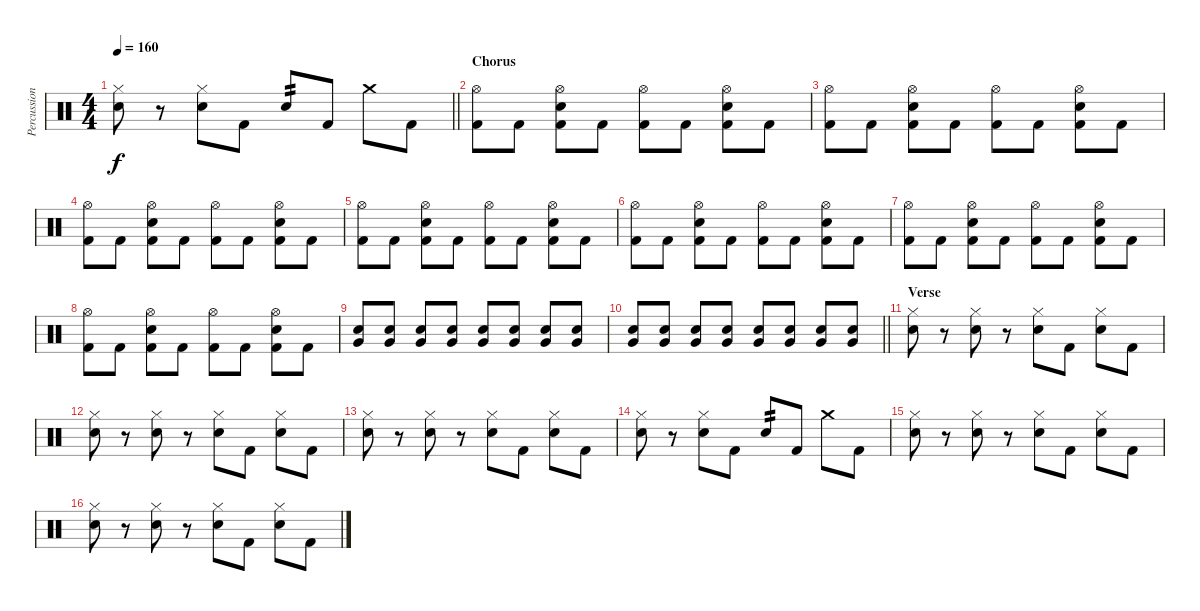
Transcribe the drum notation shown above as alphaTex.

\track ("Percussion" "Percussion") {instrument percussion}
\staff {score}
\articulation defaults
\ts (4 4)
\tempo 160
\clef neutral
\barLineRight lightlight
\ks c
("Hi-Hat (closed)" "Snare (hit) 2").8{dy f} r.8 ("Hi-Hat (closed)" "Snare (hit) 2").8 "Kick (hit) 2".8 "Snare (hit) 2".8{tp 2} "Kick (hit) 2".8 "Crash medium (hit)".8 "Kick (hit) 2".8 |
\section ("" "Chorus")
("Hi-Hat (open)" "Kick (hit) 2").8 "Kick (hit) 2".8 ("Hi-Hat (open)" "Snare (hit) 2" "Kick (hit) 2").8 "Kick (hit) 2".8 ("Hi-Hat (open)" "Kick (hit) 2").8 "Kick (hit) 2".8 ("Hi-Hat (open)" "Snare (hit) 2" "Kick (hit) 2").8 "Kick (hit) 2".8 |
("Hi-Hat (open)" "Kick (hit) 2").8 "Kick (hit) 2".8 ("Hi-Hat (open)" "Snare (hit) 2" "Kick (hit) 2").8 "Kick (hit) 2".8 ("Hi-Hat (open)" "Kick (hit) 2").8 "Kick (hit) 2".8 ("Hi-Hat (open)" "Snare (hit) 2" "Kick (hit) 2").8 "Kick (hit) 2".8 |
("Hi-Hat (open)" "Kick (hit) 2").8 "Kick (hit) 2".8 ("Hi-Hat (open)" "Snare (hit) 2" "Kick (hit) 2").8 "Kick (hit) 2".8 ("Hi-Hat (open)" "Kick (hit) 2").8 "Kick (hit) 2".8 ("Hi-Hat (open)" "Snare (hit) 2" "Kick (hit) 2").8 "Kick (hit) 2".8 |
("Hi-Hat (open)" "Kick (hit) 2").8 "Kick (hit) 2".8 ("Hi-Hat (open)" "Snare (hit) 2" "Kick (hit) 2").8 "Kick (hit) 2".8 ("Hi-Hat (open)" "Kick (hit) 2").8 "Kick (hit) 2".8 ("Hi-Hat (open)" "Snare (hit) 2" "Kick (hit) 2").8 "Kick (hit) 2".8 |
("Hi-Hat (open)" "Kick (hit) 2").8 "Kick (hit) 2".8 ("Hi-Hat (open)" "Snare (hit) 2" "Kick (hit) 2").8 "Kick (hit) 2".8 ("Hi-Hat (open)" "Kick (hit) 2").8 "Kick (hit) 2".8 ("Hi-Hat (open)" "Snare (hit) 2" "Kick (hit) 2").8 "Kick (hit) 2".8 |
("Hi-Hat (open)" "Kick (hit) 2").8 "Kick (hit) 2".8 ("Hi-Hat (open)" "Snare (hit) 2" "Kick (hit) 2").8 "Kick (hit) 2".8 ("Hi-Hat (open)" "Kick (hit) 2").8 "Kick (hit) 2".8 ("Hi-Hat (open)" "Snare (hit) 2" "Kick (hit) 2").8 "Kick (hit) 2".8 |
("Hi-Hat (open)" "Kick (hit) 2").8 "Kick (hit) 2".8 ("Hi-Hat (open)" "Snare (hit) 2" "Kick (hit) 2").8 "Kick (hit) 2".8 ("Hi-Hat (open)" "Kick (hit) 2").8 "Kick (hit) 2".8 ("Hi-Hat (open)" "Snare (hit) 2" "Kick (hit) 2").8 "Kick (hit) 2".8 |
("Very Low Tom (hit)" "Snare (hit) 2").8 ("Very Low Tom (hit)" "Snare (hit) 2").8 ("Very Low Tom (hit)" "Snare (hit) 2").8 ("Very Low Tom (hit)" "Snare (hit) 2").8 ("Very Low Tom (hit)" "Snare (hit) 2").8 ("Very Low Tom (hit)" "Snare (hit) 2").8 ("Very Low Tom (hit)" "Snare (hit) 2").8 ("Very Low Tom (hit)" "Snare (hit) 2").8 |
\barLineRight lightlight
("Very Low Tom (hit)" "Snare (hit) 2").8 ("Very Low Tom (hit)" "Snare (hit) 2").8 ("Very Low Tom (hit)" "Snare (hit) 2").8 ("Very Low Tom (hit)" "Snare (hit) 2").8 ("Very Low Tom (hit)" "Snare (hit) 2").8 ("Very Low Tom (hit)" "Snare (hit) 2").8 ("Very Low Tom (hit)" "Snare (hit) 2").8 ("Very Low Tom (hit)" "Snare (hit) 2").8 |
\section ("" "Verse")
("Hi-Hat (closed)" "Snare (hit) 2").8 r.8 ("Hi-Hat (closed)" "Snare (hit) 2").8 r.8 ("Hi-Hat (closed)" "Snare (hit) 2").8 "Kick (hit) 2".8 ("Hi-Hat (closed)" "Snare (hit) 2").8 "Kick (hit) 2".8 |
("Hi-Hat (closed)" "Snare (hit) 2").8 r.8 ("Hi-Hat (closed)" "Snare (hit) 2").8 r.8 ("Hi-Hat (closed)" "Snare (hit) 2").8 "Kick (hit) 2".8 ("Hi-Hat (closed)" "Snare (hit) 2").8 "Kick (hit) 2".8 |
("Hi-Hat (closed)" "Snare (hit) 2").8 r.8 ("Hi-Hat (closed)" "Snare (hit) 2").8 r.8 ("Hi-Hat (closed)" "Snare (hit) 2").8 "Kick (hit) 2".8 ("Hi-Hat (closed)" "Snare (hit) 2").8 "Kick (hit) 2".8 |
("Hi-Hat (closed)" "Snare (hit) 2").8 r.8 ("Hi-Hat (closed)" "Snare (hit) 2").8 "Kick (hit) 2".8 "Snare (hit) 2".8{tp 2} "Kick (hit) 2".8 "Crash medium (hit)".8 "Kick (hit) 2".8 |
("Hi-Hat (closed)" "Snare (hit) 2").8 r.8 ("Hi-Hat (closed)" "Snare (hit) 2").8 r.8 ("Hi-Hat (closed)" "Snare (hit) 2").8 "Kick (hit) 2".8 ("Hi-Hat (closed)" "Snare (hit) 2").8 "Kick (hit) 2".8 |
("Hi-Hat (closed)" "Snare (hit) 2").8 r.8 ("Hi-Hat (closed)" "Snare (hit) 2").8 r.8 ("Hi-Hat (closed)" "Snare (hit) 2").8 "Kick (hit) 2".8 ("Hi-Hat (closed)" "Snare (hit) 2").8 "Kick (hit) 2".8
